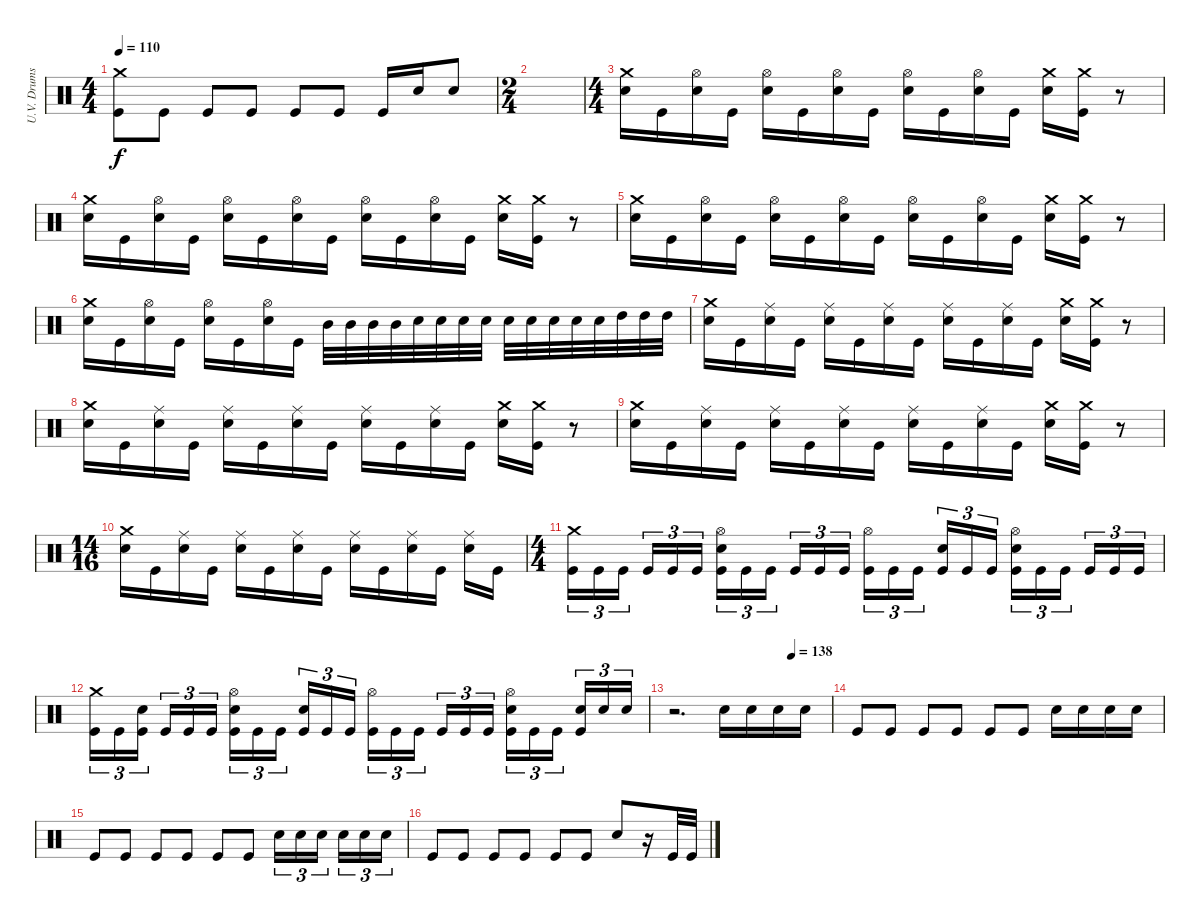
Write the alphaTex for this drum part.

\track ("U.V. Drums" "U.V. Drums") {instrument percussion}
\staff {score}
\articulation defaults
\ts (4 4)
\tempo 110
\clef neutral
\ks c
("Crash medium (hit)" "Kick (hit)").8{dy f} "Kick (hit)".8 "Kick (hit)".8 "Kick (hit)".8 "Kick (hit)".8 "Kick (hit)".8 "Kick (hit)".16 "Electric Snare (hit)".16 "Electric Snare (hit)".8 |
\ts (2 4)
|
\ts (4 4)
("Crash medium (hit)" "Electric Snare (hit)").16 "Kick (hit)".16 ("Hi-Hat (open)" "Electric Snare (hit)").16 "Kick (hit)".16 ("Hi-Hat (open)" "Electric Snare (hit)").16 "Kick (hit)".16 ("Hi-Hat (open)" "Electric Snare (hit)").16 "Kick (hit)".16 ("Hi-Hat (open)" "Electric Snare (hit)").16 "Kick (hit)".16 ("Hi-Hat (open)" "Electric Snare (hit)").16 "Kick (hit)".16 ("Crash medium (hit)" "Electric Snare (hit)").16 ("Crash medium (hit)" "Kick (hit)").16 r.8 |
("Crash medium (hit)" "Electric Snare (hit)").16 "Kick (hit)".16 ("Hi-Hat (open)" "Electric Snare (hit)").16 "Kick (hit)".16 ("Hi-Hat (open)" "Electric Snare (hit)").16 "Kick (hit)".16 ("Hi-Hat (open)" "Electric Snare (hit)").16 "Kick (hit)".16 ("Hi-Hat (open)" "Electric Snare (hit)").16 "Kick (hit)".16 ("Hi-Hat (open)" "Electric Snare (hit)").16 "Kick (hit)".16 ("Crash medium (hit)" "Electric Snare (hit)").16 ("Crash medium (hit)" "Kick (hit)").16 r.8 |
("Crash medium (hit)" "Electric Snare (hit)").16 "Kick (hit)".16 ("Hi-Hat (open)" "Electric Snare (hit)").16 "Kick (hit)".16 ("Hi-Hat (open)" "Electric Snare (hit)").16 "Kick (hit)".16 ("Hi-Hat (open)" "Electric Snare (hit)").16 "Kick (hit)".16 ("Hi-Hat (open)" "Electric Snare (hit)").16 "Kick (hit)".16 ("Hi-Hat (open)" "Electric Snare (hit)").16 "Kick (hit)".16 ("Crash medium (hit)" "Electric Snare (hit)").16 ("Crash medium (hit)" "Kick (hit)").16 r.8 |
("Crash medium (hit)" "Electric Snare (hit)").16 "Kick (hit)".16 ("Hi-Hat (open)" "Electric Snare (hit)").16 "Kick (hit)".16 ("Hi-Hat (open)" "Electric Snare (hit)").16 "Kick (hit)".16 ("Hi-Hat (open)" "Electric Snare (hit)").16 "Kick (hit)".16 "Mid Tom (hit)".32 "Mid Tom (hit)".32 "Mid Tom (hit)".32 "Mid Tom (hit)".32 "Electric Snare (hit)".32 "Electric Snare (hit)".32 "Electric Snare (hit)".32 "Electric Snare (hit)".32 "Electric Snare (hit)".32 "Electric Snare (hit)".32 "Electric Snare (hit)".32 "Electric Snare (hit)".32 "Electric Snare (hit)".32 "High Tom (hit)".32 "High Tom (hit)".32 "High Tom (hit)".32 |
("Crash medium (hit)" "Electric Snare (hit)").16 "Kick (hit)".16 ("Ride (middle)" "Electric Snare (hit)").16 "Kick (hit)".16 ("Ride (middle)" "Electric Snare (hit)").16 "Kick (hit)".16 ("Ride (middle)" "Electric Snare (hit)").16 "Kick (hit)".16 ("Ride (middle)" "Electric Snare (hit)").16 "Kick (hit)".16 ("Ride (middle)" "Electric Snare (hit)").16 "Kick (hit)".16 ("Crash medium (hit)" "Electric Snare (hit)").16 ("Crash medium (hit)" "Kick (hit)").16 r.8 |
("Crash medium (hit)" "Electric Snare (hit)").16 "Kick (hit)".16 ("Ride (middle)" "Electric Snare (hit)").16 "Kick (hit)".16 ("Ride (middle)" "Electric Snare (hit)").16 "Kick (hit)".16 ("Ride (middle)" "Electric Snare (hit)").16 "Kick (hit)".16 ("Ride (middle)" "Electric Snare (hit)").16 "Kick (hit)".16 ("Ride (middle)" "Electric Snare (hit)").16 "Kick (hit)".16 ("Crash medium (hit)" "Electric Snare (hit)").16 ("Crash medium (hit)" "Kick (hit)").16 r.8 |
("Crash medium (hit)" "Electric Snare (hit)").16 "Kick (hit)".16 ("Ride (middle)" "Electric Snare (hit)").16 "Kick (hit)".16 ("Ride (middle)" "Electric Snare (hit)").16 "Kick (hit)".16 ("Ride (middle)" "Electric Snare (hit)").16 "Kick (hit)".16 ("Ride (middle)" "Electric Snare (hit)").16 "Kick (hit)".16 ("Ride (middle)" "Electric Snare (hit)").16 "Kick (hit)".16 ("Crash medium (hit)" "Electric Snare (hit)").16 ("Crash medium (hit)" "Kick (hit)").16 r.8 |
\ts (14 16)
("Crash medium (hit)" "Electric Snare (hit)").16 "Kick (hit)".16 ("Ride (middle)" "Electric Snare (hit)").16 "Kick (hit)".16 ("Ride (middle)" "Electric Snare (hit)").16 "Kick (hit)".16 ("Ride (middle)" "Electric Snare (hit)").16 "Kick (hit)".16 ("Ride (middle)" "Electric Snare (hit)").16 "Kick (hit)".16 ("Ride (middle)" "Electric Snare (hit)").16 "Kick (hit)".16 ("Ride (middle)" "Electric Snare (hit)").16 "Kick (hit)".16 |
\ts (4 4)
("Crash medium (hit)" "Kick (hit)").16{tu (3 2)} "Kick (hit)".16{tu (3 2)} "Kick (hit)".16{tu (3 2)} "Kick (hit)".16{tu (3 2)} "Kick (hit)".16{tu (3 2)} "Kick (hit)".16{tu (3 2)} ("Hi-Hat (open)" "Electric Snare (hit)" "Kick (hit)").16{tu (3 2)} "Kick (hit)".16{tu (3 2)} "Kick (hit)".16{tu (3 2)} "Kick (hit)".16{tu (3 2)} "Kick (hit)".16{tu (3 2)} "Kick (hit)".16{tu (3 2)} ("Hi-Hat (open)" "Kick (hit)").16{tu (3 2)} "Kick (hit)".16{tu (3 2)} "Kick (hit)".16{tu (3 2)} ("Electric Snare (hit)" "Kick (hit)").16{tu (3 2)} "Kick (hit)".16{tu (3 2)} "Kick (hit)".16{tu (3 2)} ("Hi-Hat (open)" "Electric Snare (hit)" "Kick (hit)").16{tu (3 2)} "Kick (hit)".16{tu (3 2)} "Kick (hit)".16{tu (3 2)} "Kick (hit)".16{tu (3 2)} "Kick (hit)".16{tu (3 2)} "Kick (hit)".16{tu (3 2)} |
("Crash medium (hit)" "Kick (hit)").16{tu (3 2)} "Kick (hit)".16{tu (3 2)} ("Electric Snare (hit)" "Kick (hit)").16{tu (3 2)} "Kick (hit)".16{tu (3 2)} "Kick (hit)".16{tu (3 2)} "Kick (hit)".16{tu (3 2)} ("Hi-Hat (open)" "Electric Snare (hit)" "Kick (hit)").16{tu (3 2)} "Kick (hit)".16{tu (3 2)} "Kick (hit)".16{tu (3 2)} ("Electric Snare (hit)" "Kick (hit)").16{tu (3 2)} "Kick (hit)".16{tu (3 2)} "Kick (hit)".16{tu (3 2)} ("Hi-Hat (open)" "Kick (hit)").16{tu (3 2)} "Kick (hit)".16{tu (3 2)} "Kick (hit)".16{tu (3 2)} "Kick (hit)".16{tu (3 2)} "Kick (hit)".16{tu (3 2)} "Kick (hit)".16{tu (3 2)} ("Hi-Hat (open)" "Electric Snare (hit)" "Kick (hit)").16{tu (3 2)} "Kick (hit)".16{tu (3 2)} "Kick (hit)".16{tu (3 2)} ("Electric Snare (hit)" "Kick (hit)").16{tu (3 2)} "Electric Snare (hit)".16{tu (3 2)} "Electric Snare (hit)".16{tu (3 2)} |
\tempo (138 0.75)
r.2{d} "Electric Snare (hit)".16 "Electric Snare (hit)".16 "Electric Snare (hit)".16 "Electric Snare (hit)".16 |
"Kick (hit)".8 "Kick (hit)".8 "Kick (hit)".8 "Kick (hit)".8 "Kick (hit)".8 "Kick (hit)".8 "Electric Snare (hit)".16 "Electric Snare (hit)".16 "Electric Snare (hit)".16 "Electric Snare (hit)".16 |
"Kick (hit)".8 "Kick (hit)".8 "Kick (hit)".8 "Kick (hit)".8 "Kick (hit)".8 "Kick (hit)".8 "Electric Snare (hit)".16{tu (3 2)} "Electric Snare (hit)".16{tu (3 2)} "Electric Snare (hit)".16{tu (3 2)} "Electric Snare (hit)".16{tu (3 2)} "Electric Snare (hit)".16{tu (3 2)} "Electric Snare (hit)".16{tu (3 2)} |
"Kick (hit)".8 "Kick (hit)".8 "Kick (hit)".8 "Kick (hit)".8 "Kick (hit)".8 "Kick (hit)".8 "Electric Snare (hit)".8 r.16 "Kick (hit)".32 "Kick (hit)".32
